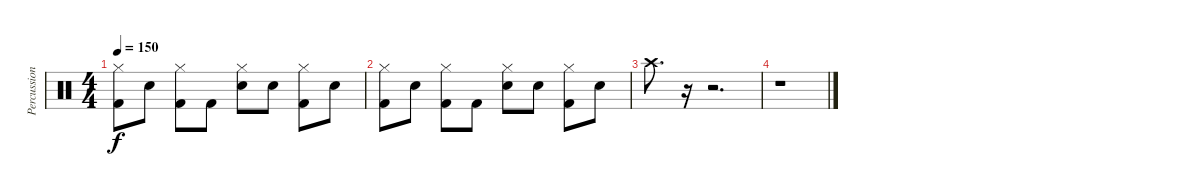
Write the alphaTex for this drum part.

\track ("Percussion" "Percussion") {instrument percussion}
\staff {score}
\articulation defaults
\ts (4 4)
\tempo 150
\clef neutral
\ks c
("Hi-Hat (closed)" "Kick (hit) 2").8{dy f} "Electric Snare (hit)".8 ("Hi-Hat (closed)" "Kick (hit) 2").8 "Kick (hit) 2".8 ("Hi-Hat (closed)" "Electric Snare (hit)").8 "Electric Snare (hit)".8 ("Hi-Hat (closed)" "Kick (hit) 2").8 "Electric Snare (hit)".8 |
("Hi-Hat (closed)" "Kick (hit) 2").8 "Electric Snare (hit)".8 ("Hi-Hat (closed)" "Kick (hit) 2").8 "Kick (hit) 2".8 ("Hi-Hat (closed)" "Electric Snare (hit)").8 "Electric Snare (hit)".8 ("Hi-Hat (closed)" "Kick (hit) 2").8 "Electric Snare (hit)".8 |
"Crash high (hit)".8{d} r.16{volume 3} r.2{d} |
r.1
